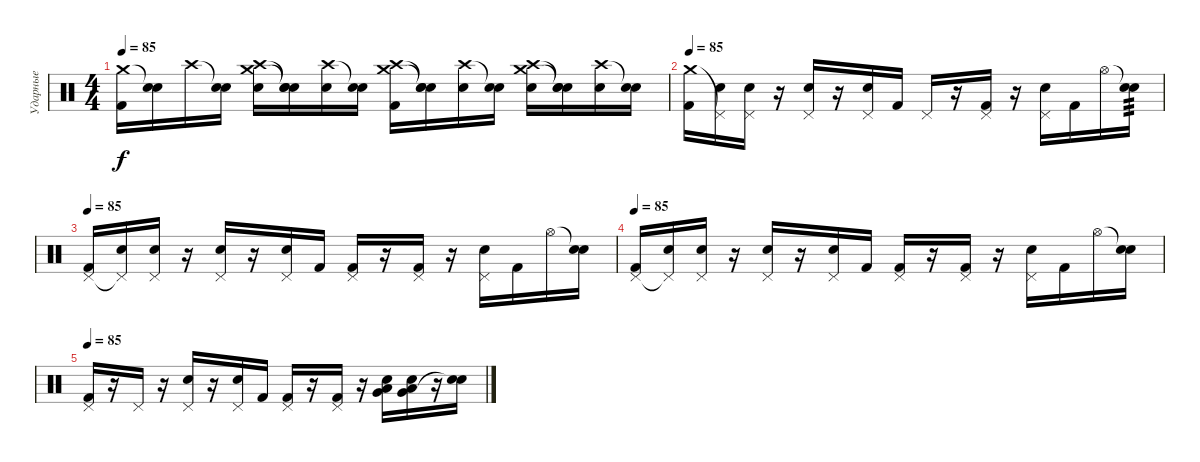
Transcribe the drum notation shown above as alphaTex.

\track ("Ударные" "Ударные") {instrument percussion}
\staff {score}
\articulation defaults
\ts (4 4)
\tempo 85
\clef neutral
\ks c
("Crash medium (hit)" "Kick (hit) 2").16{dy f} ("Snare (hit)"{t} "Snare (hit)").16 "Crash high (hit)".16 ("Snare (hit)"{t} "Snare (hit)").16 ("Crash medium (hit)" "Crash high (hit)" "Electric Snare (hit)").16 ("Snare (hit)"{t} "Snare (hit)"{t} "Snare (hit)").16 ("Crash high (hit)" "Snare (hit)").16 ("Snare (hit)"{t} "Snare (hit)").16 ("Crash medium (hit)" "Crash high (hit)" "Kick (hit) 2").16 ("Snare (hit)"{t} "Snare (hit)"{t} "Snare (hit)").16 ("Crash high (hit)" "Snare (hit)").16 ("Snare (hit)"{t} "Snare (hit)").16 ("Crash medium (hit)" "Crash high (hit)" "Electric Snare (hit)").16 ("Snare (hit)"{t} "Snare (hit)"{t} "Snare (hit)").16 ("Crash high (hit)" "Snare (hit)").16 ("Snare (hit)"{t} "Snare (hit)").16 |
\tempo 85
("Crash medium (hit)" "Kick (hit) 2").16 ("Pedal Hi-Hat (hit)"{t} "Snare (hit)").16 ("Pedal Hi-Hat (hit)" "Snare (hit)").16 r.16 ("Pedal Hi-Hat (hit)" "Electric Snare (hit)").16 r.16 ("Pedal Hi-Hat (hit)" "Snare (hit)").16 "Kick (hit) 2".16 "Pedal Hi-Hat (hit)".16 r.16 ("Pedal Hi-Hat (hit)" "Kick (hit) 2").16 r.16 ("Pedal Hi-Hat (hit)" "Electric Snare (hit)").16 "Kick (hit) 2".16 "Hi-Hat (open)".16 ("Snare (hit)"{t} "Electric Snare (hit)").16{tp 3} |
\tempo 85
("Pedal Hi-Hat (hit)" "Kick (hit) 2").16 ("Pedal Hi-Hat (hit)"{t} "Snare (hit)").16 ("Pedal Hi-Hat (hit)" "Snare (hit)").16 r.16 ("Pedal Hi-Hat (hit)" "Electric Snare (hit)").16 r.16 ("Pedal Hi-Hat (hit)" "Snare (hit)").16 "Kick (hit) 2".16 ("Pedal Hi-Hat (hit)" "Kick (hit) 2").16 r.16 ("Pedal Hi-Hat (hit)" "Kick (hit) 2").16 r.16 ("Pedal Hi-Hat (hit)" "Electric Snare (hit)").16 "Kick (hit) 2".16 "Hi-Hat (open)".16 ("Snare (hit)"{t} "Snare (hit)").16 |
\tempo 85
("Pedal Hi-Hat (hit)" "Kick (hit) 2").16 ("Pedal Hi-Hat (hit)"{t} "Snare (hit)").16 ("Pedal Hi-Hat (hit)" "Snare (hit)").16 r.16 ("Pedal Hi-Hat (hit)" "Electric Snare (hit)").16 r.16 ("Pedal Hi-Hat (hit)" "Snare (hit)").16 "Kick (hit) 2".16 ("Pedal Hi-Hat (hit)" "Kick (hit) 2").16 r.16 ("Pedal Hi-Hat (hit)" "Kick (hit) 2").16 r.16 ("Pedal Hi-Hat (hit)" "Electric Snare (hit)").16 "Kick (hit) 2".16 "Hi-Hat (open)".16 ("Snare (hit)"{t} "Snare (hit)").16 |
\tempo 85
("Pedal Hi-Hat (hit)" "Kick (hit) 2").16 r.16 "Pedal Hi-Hat (hit)".16 r.16 ("Pedal Hi-Hat (hit)" "Electric Snare (hit)").16 r.16 ("Pedal Hi-Hat (hit)" "Snare (hit)").16 "Kick (hit) 2".16 ("Pedal Hi-Hat (hit)" "Kick (hit) 2").16 r.16 ("Pedal Hi-Hat (hit)" "Kick (hit) 2").16 r.16 ("Very Low Tom (hit)" "Low Tom (hit)" "Electric Snare (hit)").16 ("Very Low Tom (hit)" "Low Tom (hit)" "Electric Snare (hit)").16 r.16 ("Snare (hit)"{t} "Snare (hit)").16
